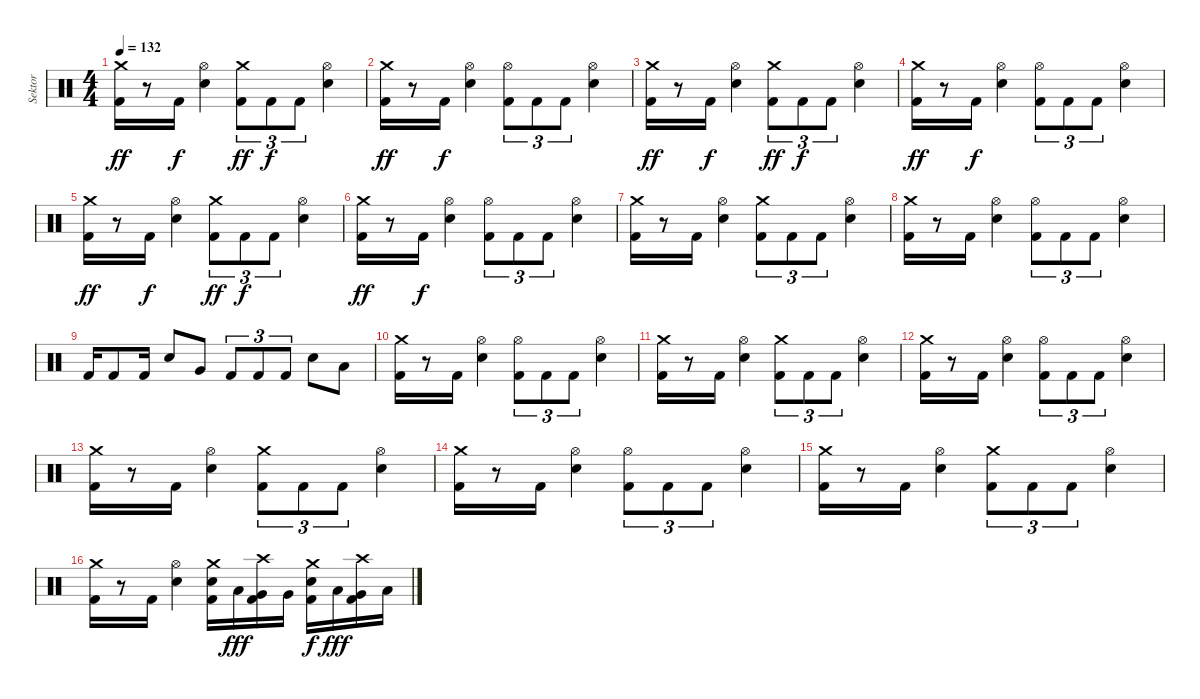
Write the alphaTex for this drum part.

\track ("Sektor" "Sektor") {instrument percussion}
\staff {score}
\articulation defaults
\ts (4 4)
\tempo 132
\clef neutral
\ks c
("Crash medium (hit)" "Kick (hit) 2").16{dy ff} r.8 "Kick (hit) 2".16{dy f} ("Hi-Hat (open)" "Snare (hit) 2").4 ("Crash medium (hit)" "Kick (hit) 2").8{tu (3 2) dy ff} "Kick (hit) 2".8{tu (3 2) dy f} "Kick (hit) 2".8{tu (3 2)} ("Hi-Hat (open)" "Snare (hit) 2").4 |
("Crash medium (hit)" "Kick (hit) 2").16{dy ff} r.8 "Kick (hit) 2".16{dy f} ("Hi-Hat (open)" "Snare (hit) 2").4 ("Hi-Hat (open)" "Kick (hit) 2").8{tu (3 2)} "Kick (hit) 2".8{tu (3 2)} "Kick (hit) 2".8{tu (3 2)} ("Hi-Hat (open)" "Snare (hit) 2").4 |
("Crash medium (hit)" "Kick (hit) 2").16{dy ff} r.8 "Kick (hit) 2".16{dy f} ("Hi-Hat (open)" "Snare (hit) 2").4 ("Crash medium (hit)" "Kick (hit) 2").8{tu (3 2) dy ff} "Kick (hit) 2".8{tu (3 2) dy f} "Kick (hit) 2".8{tu (3 2)} ("Hi-Hat (open)" "Snare (hit) 2").4 |
("Crash medium (hit)" "Kick (hit) 2").16{dy ff} r.8 "Kick (hit) 2".16{dy f} ("Hi-Hat (open)" "Snare (hit) 2").4 ("Hi-Hat (open)" "Kick (hit) 2").8{tu (3 2)} "Kick (hit) 2".8{tu (3 2)} "Kick (hit) 2".8{tu (3 2)} ("Hi-Hat (open)" "Snare (hit) 2").4 |
("Crash medium (hit)" "Kick (hit) 2").16{dy ff} r.8 "Kick (hit) 2".16{dy f} ("Hi-Hat (open)" "Snare (hit) 2").4 ("Crash medium (hit)" "Kick (hit) 2").8{tu (3 2) dy ff} "Kick (hit) 2".8{tu (3 2) dy f} "Kick (hit) 2".8{tu (3 2)} ("Hi-Hat (open)" "Snare (hit) 2").4 |
("Crash medium (hit)" "Kick (hit) 2").16{dy ff} r.8 "Kick (hit) 2".16{dy f} ("Hi-Hat (open)" "Snare (hit) 2").4 ("Hi-Hat (open)" "Kick (hit) 2").8{tu (3 2)} "Kick (hit) 2".8{tu (3 2)} "Kick (hit) 2".8{tu (3 2)} ("Hi-Hat (open)" "Snare (hit) 2").4 |
("Crash medium (hit)" "Kick (hit) 2").16 r.8 "Kick (hit) 2".16 ("Hi-Hat (open)" "Snare (hit) 2").4 ("Crash medium (hit)" "Kick (hit) 2").8{tu (3 2)} "Kick (hit) 2".8{tu (3 2)} "Kick (hit) 2".8{tu (3 2)} ("Hi-Hat (open)" "Snare (hit) 2").4 |
("Crash medium (hit)" "Kick (hit) 2").16 r.8 "Kick (hit) 2".16 ("Hi-Hat (open)" "Snare (hit) 2").4 ("Hi-Hat (open)" "Kick (hit) 2").8{tu (3 2)} "Kick (hit) 2".8{tu (3 2)} "Kick (hit) 2".8{tu (3 2)} ("Hi-Hat (open)" "Snare (hit) 2").4 |
"Kick (hit) 2".16 "Kick (hit) 2".8 "Kick (hit) 2".16 "Snare (hit) 2".8 "Very Low Tom (hit)".8 "Kick (hit) 2".8{tu (3 2)} "Kick (hit) 2".8{tu (3 2)} "Kick (hit) 2".8{tu (3 2)} "Snare (hit) 2".8 "Low Tom (hit)".8 |
("Crash medium (hit)" "Kick (hit) 2").16 r.8 "Kick (hit) 2".16 ("Hi-Hat (open)" "Snare (hit) 2").4 ("Hi-Hat (open)" "Kick (hit) 2").8{tu (3 2)} "Kick (hit) 2".8{tu (3 2)} "Kick (hit) 2".8{tu (3 2)} ("Hi-Hat (open)" "Snare (hit) 2").4 |
("Crash medium (hit)" "Kick (hit) 2").16 r.8 "Kick (hit) 2".16 ("Hi-Hat (open)" "Snare (hit) 2").4 ("Crash medium (hit)" "Kick (hit) 2").8{tu (3 2)} "Kick (hit) 2".8{tu (3 2)} "Kick (hit) 2".8{tu (3 2)} ("Hi-Hat (open)" "Snare (hit) 2").4 |
("Crash medium (hit)" "Kick (hit) 2").16 r.8 "Kick (hit) 2".16 ("Hi-Hat (open)" "Snare (hit) 2").4 ("Hi-Hat (open)" "Kick (hit) 2").8{tu (3 2)} "Kick (hit) 2".8{tu (3 2)} "Kick (hit) 2".8{tu (3 2)} ("Hi-Hat (open)" "Snare (hit) 2").4 |
("Crash medium (hit)" "Kick (hit) 2").16 r.8 "Kick (hit) 2".16 ("Hi-Hat (open)" "Snare (hit) 2").4 ("Crash medium (hit)" "Kick (hit) 2").8{tu (3 2)} "Kick (hit) 2".8{tu (3 2)} "Kick (hit) 2".8{tu (3 2)} ("Hi-Hat (open)" "Snare (hit) 2").4 |
("Crash medium (hit)" "Kick (hit) 2").16 r.8 "Kick (hit) 2".16 ("Hi-Hat (open)" "Snare (hit) 2").4 ("Hi-Hat (open)" "Kick (hit) 2").8{tu (3 2)} "Kick (hit) 2".8{tu (3 2)} "Kick (hit) 2".8{tu (3 2)} ("Hi-Hat (open)" "Snare (hit) 2").4 |
("Crash medium (hit)" "Kick (hit) 2").16 r.8 "Kick (hit) 2".16 ("Hi-Hat (open)" "Snare (hit) 2").4 ("Crash medium (hit)" "Kick (hit) 2").8{tu (3 2)} "Kick (hit) 2".8{tu (3 2)} "Kick (hit) 2".8{tu (3 2)} ("Hi-Hat (open)" "Snare (hit) 2").4 |
("Crash medium (hit)" "Kick (hit) 2").16 r.8 "Kick (hit) 2".16 ("Hi-Hat (open)" "Snare (hit) 2").4 ("Crash medium (hit)" "Snare (hit) 2" "Kick (hit) 2").16 "Low Tom (hit)".16{dy fff} ("Crash high (hit)" "Very Low Tom (hit)" "Kick (hit) 2").16 "Very Low Tom (hit)".16 ("Crash medium (hit)" "Snare (hit) 2" "Kick (hit) 2").16{dy f} "Low Tom (hit)".16{dy fff} ("Crash high (hit)" "Very Low Tom (hit)" "Kick (hit) 2").16 "Low Tom (hit)".16
